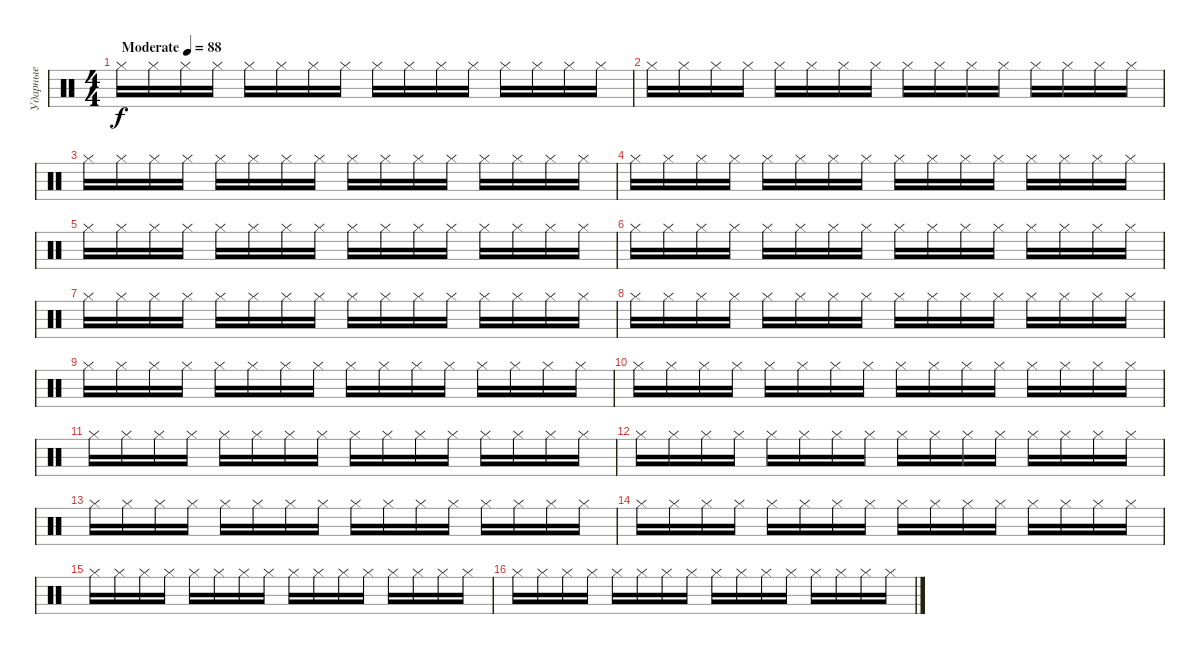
\track ("Ударные" "Ударные") {instrument percussion}
\staff {score}
\articulation defaults
\ts (4 4)
\tempo (88 "Moderate")
\clef neutral
\ks c "Hi-Hat (closed)".16{dy f} "Hi-Hat (closed)".16 "Hi-Hat (closed)".16 "Hi-Hat (closed)".16 "Hi-Hat (closed)".16 "Hi-Hat (closed)".16 "Hi-Hat (closed)".16 "Hi-Hat (closed)".16 "Hi-Hat (closed)".16 "Hi-Hat (closed)".16 "Hi-Hat (closed)".16 "Hi-Hat (closed)".16 "Hi-Hat (closed)".16 "Hi-Hat (closed)".16 "Hi-Hat (closed)".16 "Hi-Hat (closed)".16
|
"Hi-Hat (closed)".16 "Hi-Hat (closed)".16 "Hi-Hat (closed)".16 "Hi-Hat (closed)".16 "Hi-Hat (closed)".16 "Hi-Hat (closed)".16 "Hi-Hat (closed)".16 "Hi-Hat (closed)".16 "Hi-Hat (closed)".16 "Hi-Hat (closed)".16 "Hi-Hat (closed)".16 "Hi-Hat (closed)".16 "Hi-Hat (closed)".16 "Hi-Hat (closed)".16 "Hi-Hat (closed)".16 "Hi-Hat (closed)".16 |
"Hi-Hat (closed)".16 "Hi-Hat (closed)".16 "Hi-Hat (closed)".16 "Hi-Hat (closed)".16 "Hi-Hat (closed)".16 "Hi-Hat (closed)".16 "Hi-Hat (closed)".16 "Hi-Hat (closed)".16 "Hi-Hat (closed)".16 "Hi-Hat (closed)".16 "Hi-Hat (closed)".16 "Hi-Hat (closed)".16 "Hi-Hat (closed)".16 "Hi-Hat (closed)".16 "Hi-Hat (closed)".16 "Hi-Hat (closed)".16 |
"Hi-Hat (closed)".16 "Hi-Hat (closed)".16 "Hi-Hat (closed)".16 "Hi-Hat (closed)".16 "Hi-Hat (closed)".16 "Hi-Hat (closed)".16 "Hi-Hat (closed)".16 "Hi-Hat (closed)".16 "Hi-Hat (closed)".16 "Hi-Hat (closed)".16 "Hi-Hat (closed)".16 "Hi-Hat (closed)".16 "Hi-Hat (closed)".16 "Hi-Hat (closed)".16 "Hi-Hat (closed)".16 "Hi-Hat (closed)".16 |
"Hi-Hat (closed)".16 "Hi-Hat (closed)".16 "Hi-Hat (closed)".16 "Hi-Hat (closed)".16 "Hi-Hat (closed)".16 "Hi-Hat (closed)".16 "Hi-Hat (closed)".16 "Hi-Hat (closed)".16 "Hi-Hat (closed)".16 "Hi-Hat (closed)".16 "Hi-Hat (closed)".16 "Hi-Hat (closed)".16 "Hi-Hat (closed)".16 "Hi-Hat (closed)".16 "Hi-Hat (closed)".16 "Hi-Hat (closed)".16 |
"Hi-Hat (closed)".16 "Hi-Hat (closed)".16 "Hi-Hat (closed)".16 "Hi-Hat (closed)".16 "Hi-Hat (closed)".16 "Hi-Hat (closed)".16 "Hi-Hat (closed)".16 "Hi-Hat (closed)".16 "Hi-Hat (closed)".16 "Hi-Hat (closed)".16 "Hi-Hat (closed)".16 "Hi-Hat (closed)".16 "Hi-Hat (closed)".16 "Hi-Hat (closed)".16 "Hi-Hat (closed)".16 "Hi-Hat (closed)".16 |
"Hi-Hat (closed)".16 "Hi-Hat (closed)".16 "Hi-Hat (closed)".16 "Hi-Hat (closed)".16 "Hi-Hat (closed)".16 "Hi-Hat (closed)".16 "Hi-Hat (closed)".16 "Hi-Hat (closed)".16 "Hi-Hat (closed)".16 "Hi-Hat (closed)".16 "Hi-Hat (closed)".16 "Hi-Hat (closed)".16 "Hi-Hat (closed)".16 "Hi-Hat (closed)".16 "Hi-Hat (closed)".16 "Hi-Hat (closed)".16 |
"Hi-Hat (closed)".16 "Hi-Hat (closed)".16 "Hi-Hat (closed)".16 "Hi-Hat (closed)".16 "Hi-Hat (closed)".16 "Hi-Hat (closed)".16 "Hi-Hat (closed)".16 "Hi-Hat (closed)".16 "Hi-Hat (closed)".16 "Hi-Hat (closed)".16 "Hi-Hat (closed)".16 "Hi-Hat (closed)".16 "Hi-Hat (closed)".16 "Hi-Hat (closed)".16 "Hi-Hat (closed)".16 "Hi-Hat (closed)".16 |
"Hi-Hat (closed)".16 "Hi-Hat (closed)".16 "Hi-Hat (closed)".16 "Hi-Hat (closed)".16 "Hi-Hat (closed)".16 "Hi-Hat (closed)".16 "Hi-Hat (closed)".16 "Hi-Hat (closed)".16 "Hi-Hat (closed)".16 "Hi-Hat (closed)".16 "Hi-Hat (closed)".16 "Hi-Hat (closed)".16 "Hi-Hat (closed)".16 "Hi-Hat (closed)".16 "Hi-Hat (closed)".16 "Hi-Hat (closed)".16 |
"Hi-Hat (closed)".16 "Hi-Hat (closed)".16 "Hi-Hat (closed)".16 "Hi-Hat (closed)".16 "Hi-Hat (closed)".16 "Hi-Hat (closed)".16 "Hi-Hat (closed)".16 "Hi-Hat (closed)".16 "Hi-Hat (closed)".16 "Hi-Hat (closed)".16 "Hi-Hat (closed)".16 "Hi-Hat (closed)".16 "Hi-Hat (closed)".16 "Hi-Hat (closed)".16 "Hi-Hat (closed)".16 "Hi-Hat (closed)".16 |
"Hi-Hat (closed)".16 "Hi-Hat (closed)".16 "Hi-Hat (closed)".16 "Hi-Hat (closed)".16 "Hi-Hat (closed)".16 "Hi-Hat (closed)".16 "Hi-Hat (closed)".16 "Hi-Hat (closed)".16 "Hi-Hat (closed)".16 "Hi-Hat (closed)".16 "Hi-Hat (closed)".16 "Hi-Hat (closed)".16 "Hi-Hat (closed)".16 "Hi-Hat (closed)".16 "Hi-Hat (closed)".16 "Hi-Hat (closed)".16 |
"Hi-Hat (closed)".16 "Hi-Hat (closed)".16 "Hi-Hat (closed)".16 "Hi-Hat (closed)".16 "Hi-Hat (closed)".16 "Hi-Hat (closed)".16 "Hi-Hat (closed)".16 "Hi-Hat (closed)".16 "Hi-Hat (closed)".16 "Hi-Hat (closed)".16 "Hi-Hat (closed)".16 "Hi-Hat (closed)".16 "Hi-Hat (closed)".16 "Hi-Hat (closed)".16 "Hi-Hat (closed)".16 "Hi-Hat (closed)".16 |
"Hi-Hat (closed)".16 "Hi-Hat (closed)".16 "Hi-Hat (closed)".16 "Hi-Hat (closed)".16 "Hi-Hat (closed)".16 "Hi-Hat (closed)".16 "Hi-Hat (closed)".16 "Hi-Hat (closed)".16 "Hi-Hat (closed)".16 "Hi-Hat (closed)".16 "Hi-Hat (closed)".16 "Hi-Hat (closed)".16 "Hi-Hat (closed)".16 "Hi-Hat (closed)".16 "Hi-Hat (closed)".16 "Hi-Hat (closed)".16 |
"Hi-Hat (closed)".16 "Hi-Hat (closed)".16 "Hi-Hat (closed)".16 "Hi-Hat (closed)".16 "Hi-Hat (closed)".16 "Hi-Hat (closed)".16 "Hi-Hat (closed)".16 "Hi-Hat (closed)".16 "Hi-Hat (closed)".16 "Hi-Hat (closed)".16 "Hi-Hat (closed)".16 "Hi-Hat (closed)".16 "Hi-Hat (closed)".16 "Hi-Hat (closed)".16 "Hi-Hat (closed)".16 "Hi-Hat (closed)".16 |
"Hi-Hat (closed)".16 "Hi-Hat (closed)".16 "Hi-Hat (closed)".16 "Hi-Hat (closed)".16 "Hi-Hat (closed)".16 "Hi-Hat (closed)".16 "Hi-Hat (closed)".16 "Hi-Hat (closed)".16 "Hi-Hat (closed)".16 "Hi-Hat (closed)".16 "Hi-Hat (closed)".16 "Hi-Hat (closed)".16 "Hi-Hat (closed)".16 "Hi-Hat (closed)".16 "Hi-Hat (closed)".16 "Hi-Hat (closed)".16 |
"Hi-Hat (closed)".16 "Hi-Hat (closed)".16 "Hi-Hat (closed)".16 "Hi-Hat (closed)".16 "Hi-Hat (closed)".16 "Hi-Hat (closed)".16 "Hi-Hat (closed)".16 "Hi-Hat (closed)".16 "Hi-Hat (closed)".16 "Hi-Hat (closed)".16 "Hi-Hat (closed)".16 "Hi-Hat (closed)".16 "Hi-Hat (closed)".16 "Hi-Hat (closed)".16 "Hi-Hat (closed)".16 "Hi-Hat (closed)".16
